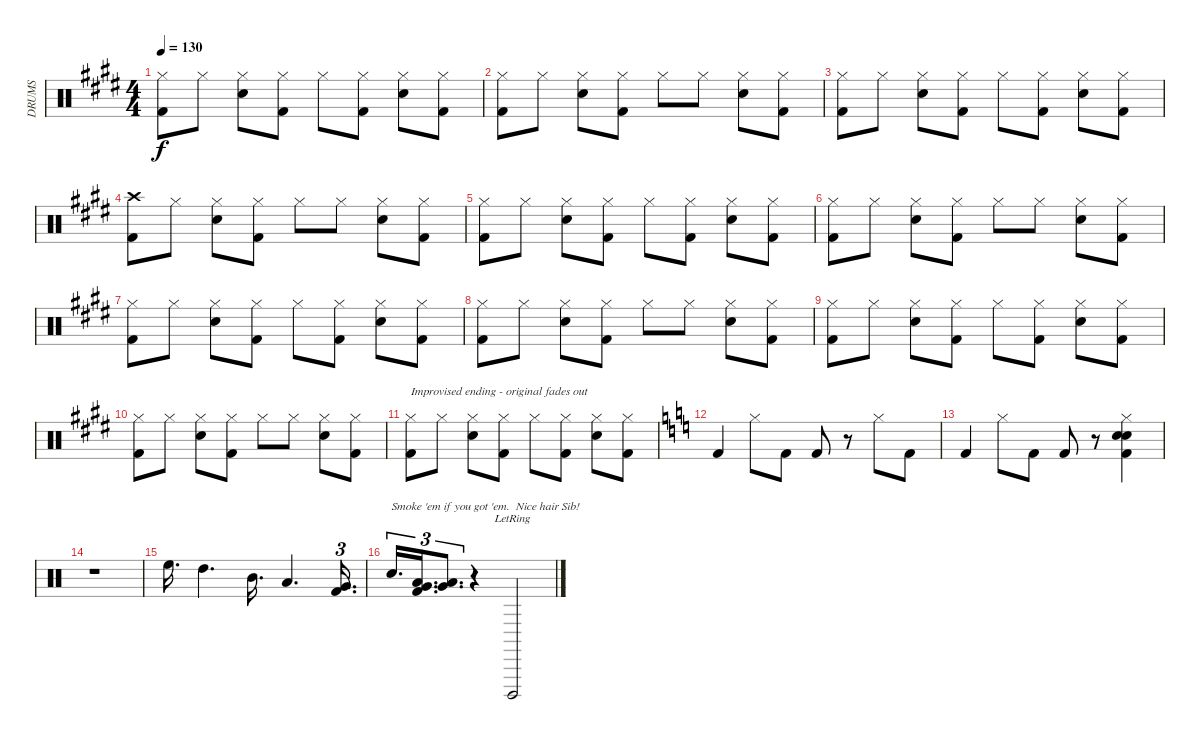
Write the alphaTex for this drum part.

\track ("DRUMS" "DRUMS") {instrument percussion}
\staff {score}
\articulation defaults
\ts (4 4)
\tempo 130
\clef neutral
\ks e
("Hi-Hat (closed)" "Kick (hit) 2").8{dy f} "Hi-Hat (closed)".8 ("Hi-Hat (closed)" "Snare (hit) 2").8 ("Hi-Hat (closed)" "Kick (hit) 2").8 "Hi-Hat (closed)".8 ("Hi-Hat (closed)" "Kick (hit) 2").8 ("Hi-Hat (closed)" "Snare (hit) 2").8 ("Hi-Hat (closed)" "Kick (hit) 2").8 |
\ks c#minor
("Hi-Hat (closed)" "Kick (hit) 2").8 "Hi-Hat (closed)".8 ("Hi-Hat (closed)" "Snare (hit) 2").8 ("Hi-Hat (closed)" "Kick (hit) 2").8 "Hi-Hat (closed)".8 "Hi-Hat (closed)".8 ("Hi-Hat (closed)" "Snare (hit) 2").8 ("Hi-Hat (closed)" "Kick (hit) 2").8 |
("Hi-Hat (closed)" "Kick (hit) 2").8 "Hi-Hat (closed)".8 ("Hi-Hat (closed)" "Snare (hit) 2").8 ("Hi-Hat (closed)" "Kick (hit) 2").8 "Hi-Hat (closed)".8 ("Hi-Hat (closed)" "Kick (hit) 2").8 ("Hi-Hat (closed)" "Snare (hit) 2").8 ("Hi-Hat (closed)" "Kick (hit) 2").8 |
("Crash high (hit)" "Kick (hit) 2").8 "Hi-Hat (closed)".8 ("Hi-Hat (closed)" "Snare (hit) 2").8 ("Hi-Hat (closed)" "Kick (hit) 2").8 "Hi-Hat (closed)".8 "Hi-Hat (closed)".8 ("Hi-Hat (closed)" "Snare (hit) 2").8 ("Hi-Hat (closed)" "Kick (hit) 2").8 |
\ks e
("Hi-Hat (closed)" "Kick (hit) 2").8 "Hi-Hat (closed)".8 ("Hi-Hat (closed)" "Snare (hit) 2").8 ("Hi-Hat (closed)" "Kick (hit) 2").8 "Hi-Hat (closed)".8 ("Hi-Hat (closed)" "Kick (hit) 2").8 ("Hi-Hat (closed)" "Snare (hit) 2").8 ("Hi-Hat (closed)" "Kick (hit) 2").8 |
\ks c#minor
("Hi-Hat (closed)" "Kick (hit) 2").8 "Hi-Hat (closed)".8 ("Hi-Hat (closed)" "Snare (hit) 2").8 ("Hi-Hat (closed)" "Kick (hit) 2").8 "Hi-Hat (closed)".8 "Hi-Hat (closed)".8 ("Hi-Hat (closed)" "Snare (hit) 2").8 ("Hi-Hat (closed)" "Kick (hit) 2").8 |
("Hi-Hat (closed)" "Kick (hit) 2").8 "Hi-Hat (closed)".8 ("Hi-Hat (closed)" "Snare (hit) 2").8 ("Hi-Hat (closed)" "Kick (hit) 2").8 "Hi-Hat (closed)".8 ("Hi-Hat (closed)" "Kick (hit) 2").8 ("Hi-Hat (closed)" "Snare (hit) 2").8 ("Hi-Hat (closed)" "Kick (hit) 2").8 |
("Hi-Hat (closed)" "Kick (hit) 2").8 "Hi-Hat (closed)".8 ("Hi-Hat (closed)" "Snare (hit) 2").8 ("Hi-Hat (closed)" "Kick (hit) 2").8 "Hi-Hat (closed)".8 "Hi-Hat (closed)".8 ("Hi-Hat (closed)" "Snare (hit) 2").8 ("Hi-Hat (closed)" "Kick (hit) 2").8 |
\ks e
("Hi-Hat (closed)" "Kick (hit) 2").8 "Hi-Hat (closed)".8 ("Hi-Hat (closed)" "Snare (hit) 2").8 ("Hi-Hat (closed)" "Kick (hit) 2").8 "Hi-Hat (closed)".8 ("Hi-Hat (closed)" "Kick (hit) 2").8 ("Hi-Hat (closed)" "Snare (hit) 2").8 ("Hi-Hat (closed)" "Kick (hit) 2").8 |
\ks c#minor
("Hi-Hat (closed)" "Kick (hit) 2").8 "Hi-Hat (closed)".8 ("Hi-Hat (closed)" "Snare (hit) 2").8 ("Hi-Hat (closed)" "Kick (hit) 2").8 "Hi-Hat (closed)".8 "Hi-Hat (closed)".8 ("Hi-Hat (closed)" "Snare (hit) 2").8 ("Hi-Hat (closed)" "Kick (hit) 2").8 |
("Hi-Hat (closed)" "Kick (hit) 2").8{txt "Improvised ending - original fades out"} "Hi-Hat (closed)".8 ("Hi-Hat (closed)" "Snare (hit) 2").8 ("Hi-Hat (closed)" "Kick (hit) 2").8 "Hi-Hat (closed)".8 ("Hi-Hat (closed)" "Kick (hit) 2").8 ("Hi-Hat (closed)" "Snare (hit) 2").8 ("Hi-Hat (closed)" "Kick (hit) 2").8 |
\ks c "Kick (hit) 2".4 "Hi-Hat (closed)".8 "Kick (hit) 2".8 "Kick (hit) 2".8
r.8 "Hi-Hat (closed)".8 "Kick (hit) 2".8 |
"Kick (hit) 2".4 "Hi-Hat (closed)".8 "Kick (hit) 2".8 "Kick (hit) 2".8 r.8 ("Hi-Hat (closed)" "Snare (hit) 2" "Snare (hit) 2" "Kick (hit) 2").4 |
r.1 |
"High Floor Tom (hit)".16{d balance 0} "High Tom (hit)".4{d} "Mid Tom (hit)".16{d balance 16} "Low Tom (hit)".4{d} ("Very Low Tom (hit)" "Kick (hit) 2").16{d tu (3 2) balance 8} |
"Electric Snare (hit)".16{d tu (3 2) txt "Smoke 'em if you got 'em.  Nice hair Sib!"} ("Low Tom (hit)" "Very Low Tom (hit)" "Kick (hit) 2").16{d tu (3 2)} ("Low Tom (hit)" "Very Low Tom (hit)").8{d tu (3 2)} r.4 "Cuica (open)"{lr}.2
